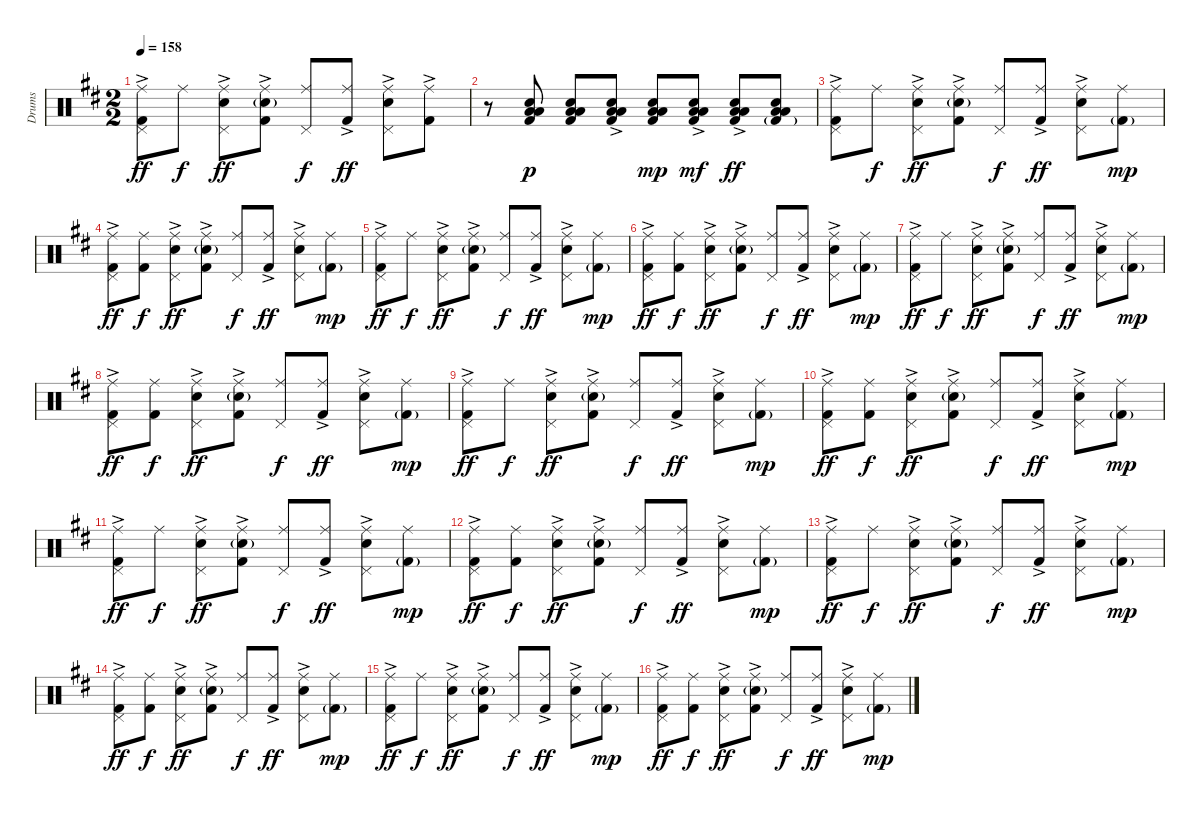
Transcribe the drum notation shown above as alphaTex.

\track ("Drums" "Drums") {instrument percussion}
\staff {score}
\articulation defaults
\ts (2 2)
\tempo 158
\clef neutral
\ks d
("Ride (middle)" "Pedal Hi-Hat (hit)" "Kick (hit) 2"{ac}).8{dy ff} "Ride (middle)".8{dy f} ("Ride (middle)" "Pedal Hi-Hat (hit)" "Snare (hit) 2"{ac}).8{dy ff} ("Ride (middle)" "Snare (hit) 2"{g} "Kick (hit) 2"{ac}).8 ("Ride (middle)" "Pedal Hi-Hat (hit)").8{dy f} ("Ride (middle)" "Kick (hit) 2"{ac}).8{dy ff} ("Ride (middle)" "Pedal Hi-Hat (hit)" "Snare (hit) 2"{ac}).8 ("Ride (middle)" "Kick (hit) 2"{ac}).8 |
r.8 ("Snare (hit) 2" "Low Tom (hit)" "Low Floor Tom (hit)" "Kick (hit) 2").8{dy p} ("Snare (hit) 2" "Low Tom (hit)" "Low Floor Tom (hit)" "Kick (hit) 2").8 ("Snare (hit) 2" "Low Tom (hit)" "Low Floor Tom (hit)" "Kick (hit) 2"{ac}).8 ("Snare (hit) 2" "Low Tom (hit)" "Low Floor Tom (hit)" "Kick (hit) 2").8{dy mp} ("Snare (hit) 2" "Low Tom (hit)" "Low Floor Tom (hit)" "Kick (hit) 2"{ac}).8{dy mf} ("Snare (hit) 2"{ac} "Low Tom (hit)" "Low Floor Tom (hit)" "Kick (hit) 2").8{dy ff} ("Snare (hit) 2" "Low Tom (hit)" "Low Floor Tom (hit)" "Kick (hit) 2"{g}).8 |
("Ride (middle)" "Pedal Hi-Hat (hit)" "Kick (hit) 2"{ac}).8 "Ride (middle)".8{dy f} ("Ride (middle)" "Pedal Hi-Hat (hit)" "Snare (hit) 2"{ac}).8{dy ff} ("Ride (middle)" "Snare (hit) 2"{g} "Kick (hit) 2"{ac}).8 ("Ride (middle)" "Pedal Hi-Hat (hit)").8{dy f} ("Ride (middle)" "Kick (hit) 2"{ac}).8{dy ff} ("Ride (middle)" "Pedal Hi-Hat (hit)" "Snare (hit) 2"{ac}).8 ("Ride (middle)" "Kick (hit) 2"{g}).8{dy mp} |
("Ride (middle)" "Pedal Hi-Hat (hit)" "Kick (hit) 2"{ac}).8{dy ff} ("Ride (middle)" "Kick (hit) 2").8{dy f} ("Ride (middle)" "Pedal Hi-Hat (hit)" "Snare (hit) 2"{ac}).8{dy ff} ("Ride (middle)" "Snare (hit) 2"{g} "Kick (hit) 2"{ac}).8 ("Ride (middle)" "Pedal Hi-Hat (hit)").8{dy f} ("Ride (middle)" "Kick (hit) 2"{ac}).8{dy ff} ("Ride (middle)" "Pedal Hi-Hat (hit)" "Snare (hit) 2"{ac}).8 ("Ride (middle)" "Kick (hit) 2"{g}).8{dy mp} |
("Ride (middle)" "Pedal Hi-Hat (hit)" "Kick (hit) 2"{ac}).8{dy ff} "Ride (middle)".8{dy f} ("Ride (middle)" "Pedal Hi-Hat (hit)" "Snare (hit) 2"{ac}).8{dy ff} ("Ride (middle)" "Snare (hit) 2"{g} "Kick (hit) 2"{ac}).8 ("Ride (middle)" "Pedal Hi-Hat (hit)").8{dy f} ("Ride (middle)" "Kick (hit) 2"{ac}).8{dy ff} ("Ride (middle)" "Pedal Hi-Hat (hit)" "Snare (hit) 2"{ac}).8 ("Ride (middle)" "Kick (hit) 2"{g}).8{dy mp} |
("Ride (middle)" "Pedal Hi-Hat (hit)" "Kick (hit) 2"{ac}).8{dy ff} ("Ride (middle)" "Kick (hit) 2").8{dy f} ("Ride (middle)" "Pedal Hi-Hat (hit)" "Snare (hit) 2"{ac}).8{dy ff} ("Ride (middle)" "Snare (hit) 2"{g} "Kick (hit) 2"{ac}).8 ("Ride (middle)" "Pedal Hi-Hat (hit)").8{dy f} ("Ride (middle)" "Kick (hit) 2"{ac}).8{dy ff} ("Ride (middle)" "Pedal Hi-Hat (hit)" "Snare (hit) 2"{ac}).8 ("Ride (middle)" "Kick (hit) 2"{g}).8{dy mp} |
("Ride (middle)" "Pedal Hi-Hat (hit)" "Kick (hit) 2"{ac}).8{dy ff} "Ride (middle)".8{dy f} ("Ride (middle)" "Pedal Hi-Hat (hit)" "Snare (hit) 2"{ac}).8{dy ff} ("Ride (middle)" "Snare (hit) 2"{g} "Kick (hit) 2"{ac}).8 ("Ride (middle)" "Pedal Hi-Hat (hit)").8{dy f} ("Ride (middle)" "Kick (hit) 2"{ac}).8{dy ff} ("Ride (middle)" "Pedal Hi-Hat (hit)" "Snare (hit) 2"{ac}).8 ("Ride (middle)" "Kick (hit) 2"{g}).8{dy mp} |
("Ride (middle)" "Pedal Hi-Hat (hit)" "Kick (hit) 2"{ac}).8{dy ff} ("Ride (middle)" "Kick (hit) 2").8{dy f} ("Ride (middle)" "Pedal Hi-Hat (hit)" "Snare (hit) 2"{ac}).8{dy ff} ("Ride (middle)" "Snare (hit) 2"{g} "Kick (hit) 2"{ac}).8 ("Ride (middle)" "Pedal Hi-Hat (hit)").8{dy f} ("Ride (middle)" "Kick (hit) 2"{ac}).8{dy ff} ("Ride (middle)" "Pedal Hi-Hat (hit)" "Snare (hit) 2"{ac}).8 ("Ride (middle)" "Kick (hit) 2"{g}).8{dy mp} |
("Ride (middle)" "Pedal Hi-Hat (hit)" "Kick (hit) 2"{ac}).8{dy ff} "Ride (middle)".8{dy f} ("Ride (middle)" "Pedal Hi-Hat (hit)" "Snare (hit) 2"{ac}).8{dy ff} ("Ride (middle)" "Snare (hit) 2"{g} "Kick (hit) 2"{ac}).8 ("Ride (middle)" "Pedal Hi-Hat (hit)").8{dy f} ("Ride (middle)" "Kick (hit) 2"{ac}).8{dy ff} ("Ride (middle)" "Pedal Hi-Hat (hit)" "Snare (hit) 2"{ac}).8 ("Ride (middle)" "Kick (hit) 2"{g}).8{dy mp} |
("Ride (middle)" "Pedal Hi-Hat (hit)" "Kick (hit) 2"{ac}).8{dy ff} ("Ride (middle)" "Kick (hit) 2").8{dy f} ("Ride (middle)" "Pedal Hi-Hat (hit)" "Snare (hit) 2"{ac}).8{dy ff} ("Ride (middle)" "Snare (hit) 2"{g} "Kick (hit) 2"{ac}).8 ("Ride (middle)" "Pedal Hi-Hat (hit)").8{dy f} ("Ride (middle)" "Kick (hit) 2"{ac}).8{dy ff} ("Ride (middle)" "Pedal Hi-Hat (hit)" "Snare (hit) 2"{ac}).8 ("Ride (middle)" "Kick (hit) 2"{g}).8{dy mp} |
("Ride (middle)" "Pedal Hi-Hat (hit)" "Kick (hit) 2"{ac}).8{dy ff} "Ride (middle)".8{dy f} ("Ride (middle)" "Pedal Hi-Hat (hit)" "Snare (hit) 2"{ac}).8{dy ff} ("Ride (middle)" "Snare (hit) 2"{g} "Kick (hit) 2"{ac}).8 ("Ride (middle)" "Pedal Hi-Hat (hit)").8{dy f} ("Ride (middle)" "Kick (hit) 2"{ac}).8{dy ff} ("Ride (middle)" "Pedal Hi-Hat (hit)" "Snare (hit) 2"{ac}).8 ("Ride (middle)" "Kick (hit) 2"{g}).8{dy mp} |
("Ride (middle)" "Pedal Hi-Hat (hit)" "Kick (hit) 2"{ac}).8{dy ff} ("Ride (middle)" "Kick (hit) 2").8{dy f} ("Ride (middle)" "Pedal Hi-Hat (hit)" "Snare (hit) 2"{ac}).8{dy ff} ("Ride (middle)" "Snare (hit) 2"{g} "Kick (hit) 2"{ac}).8 ("Ride (middle)" "Pedal Hi-Hat (hit)").8{dy f} ("Ride (middle)" "Kick (hit) 2"{ac}).8{dy ff} ("Ride (middle)" "Pedal Hi-Hat (hit)" "Snare (hit) 2"{ac}).8 ("Ride (middle)" "Kick (hit) 2"{g}).8{dy mp} |
("Ride (middle)" "Pedal Hi-Hat (hit)" "Kick (hit) 2"{ac}).8{dy ff} "Ride (middle)".8{dy f} ("Ride (middle)" "Pedal Hi-Hat (hit)" "Snare (hit) 2"{ac}).8{dy ff} ("Ride (middle)" "Snare (hit) 2"{g} "Kick (hit) 2"{ac}).8 ("Ride (middle)" "Pedal Hi-Hat (hit)").8{dy f} ("Ride (middle)" "Kick (hit) 2"{ac}).8{dy ff} ("Ride (middle)" "Pedal Hi-Hat (hit)" "Snare (hit) 2"{ac}).8 ("Ride (middle)" "Kick (hit) 2"{g}).8{dy mp} |
("Ride (middle)" "Pedal Hi-Hat (hit)" "Kick (hit) 2"{ac}).8{dy ff} ("Ride (middle)" "Kick (hit) 2").8{dy f} ("Ride (middle)" "Pedal Hi-Hat (hit)" "Snare (hit) 2"{ac}).8{dy ff} ("Ride (middle)" "Snare (hit) 2"{g} "Kick (hit) 2"{ac}).8 ("Ride (middle)" "Pedal Hi-Hat (hit)").8{dy f} ("Ride (middle)" "Kick (hit) 2"{ac}).8{dy ff} ("Ride (middle)" "Pedal Hi-Hat (hit)" "Snare (hit) 2"{ac}).8 ("Ride (middle)" "Kick (hit) 2"{g}).8{dy mp} |
("Ride (middle)" "Pedal Hi-Hat (hit)" "Kick (hit) 2"{ac}).8{dy ff} "Ride (middle)".8{dy f} ("Ride (middle)" "Pedal Hi-Hat (hit)" "Snare (hit) 2"{ac}).8{dy ff} ("Ride (middle)" "Snare (hit) 2"{g} "Kick (hit) 2"{ac}).8 ("Ride (middle)" "Pedal Hi-Hat (hit)").8{dy f} ("Ride (middle)" "Kick (hit) 2"{ac}).8{dy ff} ("Ride (middle)" "Pedal Hi-Hat (hit)" "Snare (hit) 2"{ac}).8 ("Ride (middle)" "Kick (hit) 2"{g}).8{dy mp} |
("Ride (middle)" "Pedal Hi-Hat (hit)" "Kick (hit) 2"{ac}).8{dy ff} ("Ride (middle)" "Kick (hit) 2").8{dy f} ("Ride (middle)" "Pedal Hi-Hat (hit)" "Snare (hit) 2"{ac}).8{dy ff} ("Ride (middle)" "Snare (hit) 2"{g} "Kick (hit) 2"{ac}).8 ("Ride (middle)" "Pedal Hi-Hat (hit)").8{dy f} ("Ride (middle)" "Kick (hit) 2"{ac}).8{dy ff} ("Ride (middle)" "Pedal Hi-Hat (hit)" "Snare (hit) 2"{ac}).8 ("Ride (middle)" "Kick (hit) 2"{g}).8{dy mp}
